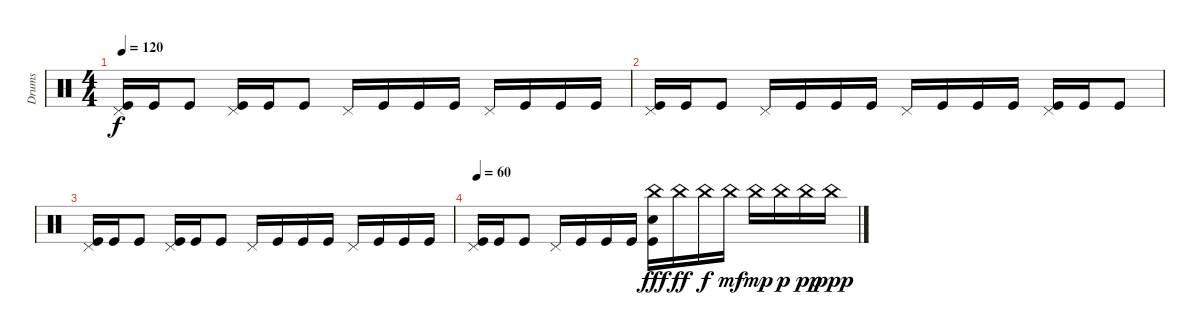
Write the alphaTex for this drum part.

\track ("Drums" "Drums") {instrument percussion}
\staff {score}
\articulation defaults
\ts (4 4)
\tempo 120
\clef neutral
\ks c
("Pedal Hi-Hat (hit)" "Kick (hit)").16{dy f} "Kick (hit)".16 "Kick (hit)".8 ("Pedal Hi-Hat (hit)" "Kick (hit)").16 "Kick (hit)".16 "Kick (hit)".8 "Pedal Hi-Hat (hit)".16 "Kick (hit)".16 "Kick (hit)".16 "Kick (hit)".16 "Pedal Hi-Hat (hit)".16 "Kick (hit)".16 "Kick (hit)".16 "Kick (hit)".16 |
("Pedal Hi-Hat (hit)" "Kick (hit)").16 "Kick (hit)".16 "Kick (hit)".8 "Pedal Hi-Hat (hit)".16 "Kick (hit)".16 "Kick (hit)".16 "Kick (hit)".16 "Pedal Hi-Hat (hit)".16 "Kick (hit)".16 "Kick (hit)".16 "Kick (hit)".16 ("Pedal Hi-Hat (hit)" "Kick (hit)").16 "Kick (hit)".16 "Kick (hit)".8 |
("Pedal Hi-Hat (hit)" "Kick (hit)").16 "Kick (hit)".16 "Kick (hit)".8 ("Pedal Hi-Hat (hit)" "Kick (hit)").16 "Kick (hit)".16 "Kick (hit)".8 "Pedal Hi-Hat (hit)".16 "Kick (hit)".16 "Kick (hit)".16 "Kick (hit)".16 "Pedal Hi-Hat (hit)".16 "Kick (hit)".16 "Kick (hit)".16 "Kick (hit)".16 |
\tempo 60
("Pedal Hi-Hat (hit)" "Kick (hit)").16 "Kick (hit)".16 "Kick (hit)".8 "Pedal Hi-Hat (hit)".16 "Kick (hit)".16 "Kick (hit)".16 "Kick (hit)".16 ("China (hit)" "Electric Snare (hit)" "Kick (hit)").16{dy fff} "China (hit)".16{dy ff} "China (hit)".16{dy f} "China (hit)".16{dy mf} "China (hit)".16{dy mp} "China (hit)".16{dy p} "China (hit)".16{dy pp} "China (hit)".16{dy ppp}
